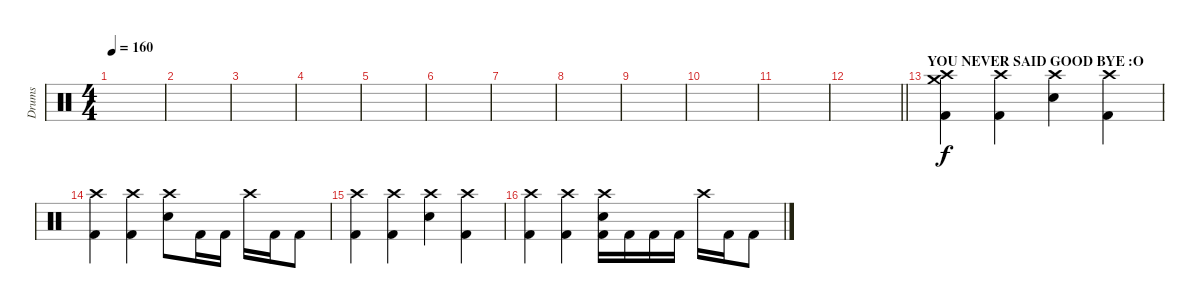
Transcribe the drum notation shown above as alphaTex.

\track ("Drums" "Drums") {instrument percussion}
\staff {score}
\articulation defaults
\ts (4 4)
\tempo 160
\clef neutral
\ks c
|
|
|
|
|
|
|
|
|
|
|
\barLineRight lightlight
|
\section ("" "YOU NEVER SAID GOOD BYE :О")
("Crash medium (hit)" "Crash high (hit)" "Kick (hit) 2").4 ("Crash high (hit)" "Kick (hit) 2").4 ("Crash high (hit)" "Electric Snare (hit)").4 ("Crash high (hit)" "Kick (hit) 2").4 |
("Crash high (hit)" "Kick (hit) 2").4 ("Crash high (hit)" "Kick (hit) 2").4 ("Crash high (hit)" "Electric Snare (hit)").8 "Kick (hit) 2".16 "Kick (hit) 2".16 "Crash high (hit)".16 "Kick (hit) 2".16 "Kick (hit) 2".8 |
("Crash high (hit)" "Kick (hit) 2").4 ("Crash high (hit)" "Kick (hit) 2").4 ("Crash high (hit)" "Electric Snare (hit)").4 ("Crash high (hit)" "Kick (hit) 2").4 |
("Crash high (hit)" "Kick (hit) 2").4 ("Crash high (hit)" "Kick (hit) 2").4 ("Crash high (hit)" "Electric Snare (hit)" "Kick (hit) 2").16 "Kick (hit) 2".16 "Kick (hit) 2".16 "Kick (hit) 2".16 "Crash high (hit)".16 "Kick (hit) 2".16 "Kick (hit) 2".8
